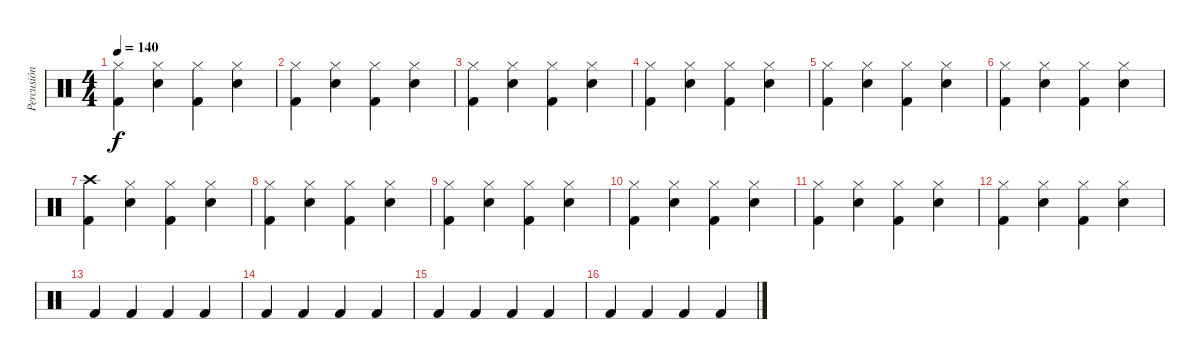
\track ("Percusión" "Percusión") {instrument percussion}
\staff {score}
\articulation defaults
\ts (4 4)
\tempo 140
\clef neutral
\ks c
("Hi-Hat (closed)" "Kick (hit) 2").4{dy f} ("Hi-Hat (closed)" "Snare (hit) 2").4 ("Hi-Hat (closed)" "Kick (hit) 2").4 ("Hi-Hat (closed)" "Snare (hit) 2").4 |
("Hi-Hat (closed)" "Kick (hit) 2").4 ("Hi-Hat (closed)" "Snare (hit) 2").4 ("Hi-Hat (closed)" "Kick (hit) 2").4 ("Hi-Hat (closed)" "Snare (hit) 2").4 |
("Hi-Hat (closed)" "Kick (hit) 2").4 ("Hi-Hat (closed)" "Snare (hit) 2").4 ("Hi-Hat (closed)" "Kick (hit) 2").4 ("Hi-Hat (closed)" "Snare (hit) 2").4 |
("Hi-Hat (closed)" "Kick (hit) 2").4 ("Hi-Hat (closed)" "Snare (hit) 2").4 ("Hi-Hat (closed)" "Kick (hit) 2").4 ("Hi-Hat (closed)" "Snare (hit) 2").4 |
("Hi-Hat (closed)" "Kick (hit) 2").4 ("Hi-Hat (closed)" "Snare (hit) 2").4 ("Hi-Hat (closed)" "Kick (hit) 2").4 ("Hi-Hat (closed)" "Snare (hit) 2").4 |
("Hi-Hat (closed)" "Kick (hit) 2").4 ("Hi-Hat (closed)" "Snare (hit) 2").4 ("Hi-Hat (closed)" "Kick (hit) 2").4 ("Hi-Hat (closed)" "Snare (hit) 2").4 |
("Crash high (hit)" "Kick (hit) 2").4 ("Hi-Hat (closed)" "Snare (hit) 2").4 ("Hi-Hat (closed)" "Kick (hit) 2").4 ("Hi-Hat (closed)" "Snare (hit) 2").4 |
("Hi-Hat (closed)" "Kick (hit) 2").4 ("Hi-Hat (closed)" "Snare (hit) 2").4 ("Hi-Hat (closed)" "Kick (hit) 2").4 ("Hi-Hat (closed)" "Snare (hit) 2").4 |
("Hi-Hat (closed)" "Kick (hit) 2").4 ("Hi-Hat (closed)" "Snare (hit) 2").4 ("Hi-Hat (closed)" "Kick (hit) 2").4 ("Hi-Hat (closed)" "Snare (hit) 2").4 |
("Hi-Hat (closed)" "Kick (hit) 2").4 ("Hi-Hat (closed)" "Snare (hit) 2").4 ("Hi-Hat (closed)" "Kick (hit) 2").4 ("Hi-Hat (closed)" "Snare (hit) 2").4 |
("Hi-Hat (closed)" "Kick (hit) 2").4 ("Hi-Hat (closed)" "Snare (hit) 2").4 ("Hi-Hat (closed)" "Kick (hit) 2").4 ("Hi-Hat (closed)" "Snare (hit) 2").4 |
("Hi-Hat (closed)" "Kick (hit) 2").4 ("Hi-Hat (closed)" "Snare (hit) 2").4 ("Hi-Hat (closed)" "Kick (hit) 2").4 ("Hi-Hat (closed)" "Snare (hit) 2").4 |
"Kick (hit) 2".4 "Kick (hit) 2".4 "Kick (hit) 2".4 "Kick (hit) 2".4 |
"Kick (hit) 2".4 "Kick (hit) 2".4 "Kick (hit) 2".4 "Kick (hit) 2".4 |
"Kick (hit) 2".4 "Kick (hit) 2".4 "Kick (hit) 2".4 "Kick (hit) 2".4 |
"Kick (hit) 2".4 "Kick (hit) 2".4 "Kick (hit) 2".4 "Kick (hit) 2".4
